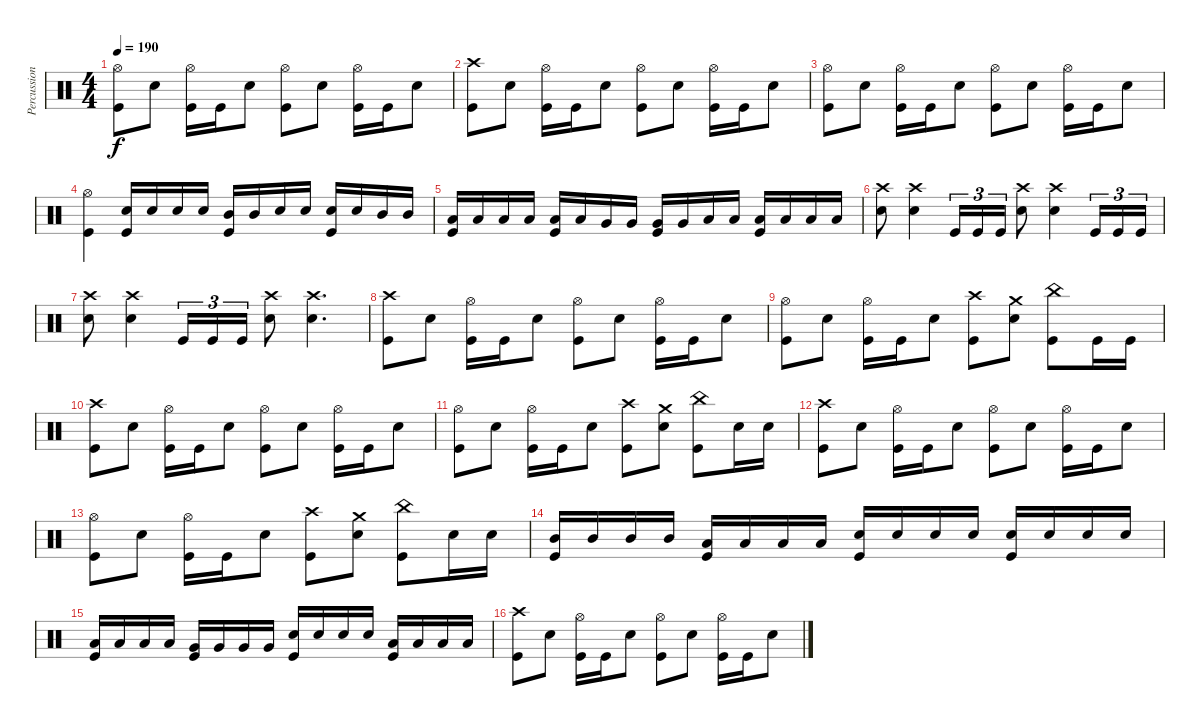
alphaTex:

\track ("Percussion" "Percussion") {instrument percussion}
\staff {score}
\articulation defaults
\ts (4 4)
\tempo 190
\clef neutral
\ks c
("Hi-Hat (open)" "Kick (hit)").8{dy f} "Snare (hit) 2".8 ("Hi-Hat (open)" "Kick (hit)").16 "Kick (hit)".16 "Snare (hit) 2".8 ("Hi-Hat (open)" "Kick (hit)").8 "Snare (hit) 2".8 ("Hi-Hat (open)" "Kick (hit)").16 "Kick (hit)".16 "Snare (hit) 2".8 |
("Crash high (hit)" "Kick (hit)").8 "Snare (hit) 2".8 ("Hi-Hat (open)" "Kick (hit)").16 "Kick (hit)".16 "Snare (hit) 2".8 ("Hi-Hat (open)" "Kick (hit)").8 "Snare (hit) 2".8 ("Hi-Hat (open)" "Kick (hit)").16 "Kick (hit)".16 "Snare (hit) 2".8 |
("Hi-Hat (open)" "Kick (hit)").8 "Snare (hit) 2".8 ("Hi-Hat (open)" "Kick (hit)").16 "Kick (hit)".16 "Snare (hit) 2".8 ("Hi-Hat (open)" "Kick (hit)").8 "Snare (hit) 2".8 ("Hi-Hat (open)" "Kick (hit)").16 "Kick (hit)".16 "Snare (hit) 2".8 |
("Hi-Hat (open)" "Kick (hit)").4 ("Snare (hit) 2" "Kick (hit)").16 "Snare (hit) 2".16 "Snare (hit) 2".16 "Snare (hit) 2".16 ("Mid Tom (hit)" "Kick (hit)").16 "Mid Tom (hit)".16 "Snare (hit) 2".16 "Snare (hit) 2".16 ("Snare (hit) 2" "Kick (hit)").16 "Snare (hit) 2".16 "Mid Tom (hit)".16 "Mid Tom (hit)".16 |
("Low Tom (hit)" "Kick (hit)").16 "Low Tom (hit)".16 "Low Tom (hit)".16 "Low Tom (hit)".16 ("Low Tom (hit)" "Kick (hit)").16 "Low Tom (hit)".16 "Very Low Tom (hit)".16 "Very Low Tom (hit)".16 ("Very Low Tom (hit)" "Kick (hit)").16 "Very Low Tom (hit)".16 "Low Floor Tom (hit)".16 "Low Floor Tom (hit)".16 ("Low Floor Tom (hit)" "Kick (hit)").16 "Low Floor Tom (hit)".16 "Low Floor Tom (hit)".16 "Low Floor Tom (hit)".16 |
("Crash high (hit)" "Snare (hit) 2").8 ("Crash high (hit)" "Snare (hit) 2").4 "Kick (hit)".16{tu (3 2)} "Kick (hit)".16{tu (3 2)} "Kick (hit)".16{tu (3 2)} ("Crash high (hit)" "Snare (hit) 2").8 ("Crash high (hit)" "Snare (hit) 2").4 "Kick (hit)".16{tu (3 2)} "Kick (hit)".16{tu (3 2)} "Kick (hit)".16{tu (3 2)} |
("Crash high (hit)" "Snare (hit) 2").8 ("Crash high (hit)" "Snare (hit) 2").4 "Kick (hit)".16{tu (3 2)} "Kick (hit)".16{tu (3 2)} "Kick (hit)".16{tu (3 2)} ("Crash high (hit)" "Snare (hit) 2").8 ("Crash high (hit)" "Snare (hit) 2").4{d} |
("Crash high (hit)" "Kick (hit)").8 "Snare (hit) 2".8 ("Hi-Hat (open)" "Kick (hit)").16 "Kick (hit)".16 "Snare (hit) 2".8 ("Hi-Hat (open)" "Kick (hit)").8 "Snare (hit) 2".8 ("Hi-Hat (open)" "Kick (hit)").16 "Kick (hit)".16 "Snare (hit) 2".8 |
("Hi-Hat (open)" "Kick (hit)").8 "Snare (hit) 2".8 ("Hi-Hat (open)" "Kick (hit)").16 "Kick (hit)".16 "Snare (hit) 2".8 ("Crash high (hit)" "Kick (hit)").8 ("Crash medium (hit)" "Snare (hit) 2").8 ("China (hit)" "Kick (hit)").8 "Kick (hit)".16 "Kick (hit)".16 |
("Crash high (hit)" "Kick (hit)").8 "Snare (hit) 2".8 ("Hi-Hat (open)" "Kick (hit)").16 "Kick (hit)".16 "Snare (hit) 2".8 ("Hi-Hat (open)" "Kick (hit)").8 "Snare (hit) 2".8 ("Hi-Hat (open)" "Kick (hit)").16 "Kick (hit)".16 "Snare (hit) 2".8 |
("Hi-Hat (open)" "Kick (hit)").8 "Snare (hit) 2".8 ("Hi-Hat (open)" "Kick (hit)").16 "Kick (hit)".16 "Snare (hit) 2".8 ("Crash high (hit)" "Kick (hit)").8 ("Crash medium (hit)" "Snare (hit) 2").8 ("China (hit)" "Kick (hit)").8 "Snare (hit) 2".16 "Snare (hit) 2".16 |
("Crash high (hit)" "Kick (hit)").8 "Snare (hit) 2".8 ("Hi-Hat (open)" "Kick (hit)").16 "Kick (hit)".16 "Snare (hit) 2".8 ("Hi-Hat (open)" "Kick (hit)").8 "Snare (hit) 2".8 ("Hi-Hat (open)" "Kick (hit)").16 "Kick (hit)".16 "Snare (hit) 2".8 |
("Hi-Hat (open)" "Kick (hit)").8 "Snare (hit) 2".8 ("Hi-Hat (open)" "Kick (hit)").16 "Kick (hit)".16 "Snare (hit) 2".8 ("Crash high (hit)" "Kick (hit)").8 ("Crash medium (hit)" "Snare (hit) 2").8 ("China (hit)" "Kick (hit)").8 "Snare (hit) 2".16 "Snare (hit) 2".16 |
("Mid Tom (hit)" "Kick (hit)").16 "Mid Tom (hit)".16 "Mid Tom (hit)".16 "Mid Tom (hit)".16 ("Low Tom (hit)" "Kick (hit)").16 "Low Tom (hit)".16 "Low Tom (hit)".16 "Low Tom (hit)".16 ("Snare (hit) 2" "Kick (hit)").16 "Snare (hit) 2".16 "Snare (hit) 2".16 "Snare (hit) 2".16 ("Snare (hit) 2" "Kick (hit)").16 "Snare (hit) 2".16 "Snare (hit) 2".16 "Snare (hit) 2".16 |
("Low Tom (hit)" "Kick (hit)").16 "Low Tom (hit)".16 "Low Tom (hit)".16 "Low Tom (hit)".16 ("Very Low Tom (hit)" "Kick (hit)").16 "Very Low Tom (hit)".16 "Very Low Tom (hit)".16 "Very Low Tom (hit)".16 ("Snare (hit) 2" "Kick (hit)").16 "Snare (hit) 2".16 "Snare (hit) 2".16 "Snare (hit) 2".16 ("Low Floor Tom (hit)" "Kick (hit)").16 "Low Floor Tom (hit)".16 "Low Floor Tom (hit)".16 "Low Floor Tom (hit)".16 |
("Crash high (hit)" "Kick (hit)").8 "Snare (hit) 2".8 ("Hi-Hat (open)" "Kick (hit)").16 "Kick (hit)".16 "Snare (hit) 2".8 ("Hi-Hat (open)" "Kick (hit)").8 "Snare (hit) 2".8 ("Hi-Hat (open)" "Kick (hit)").16 "Kick (hit)".16 "Snare (hit) 2".8
